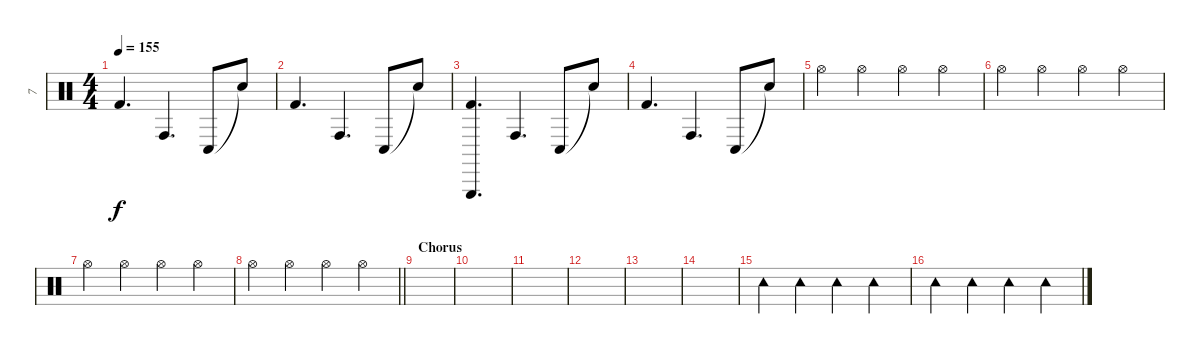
\track ("7" "7") {instrument percussion}
\staff {score}
\articulation defaults
\ts (4 4)
\tempo 155
\clef neutral
\ks c "Kick (hit) 2".4{d dy f} "Conga high (hit)".4{d} "Conga low (hit)".8 "Snare (hit)"{t}.8
|
"Kick (hit) 2".4{d} "Conga high (hit)".4{d} "Conga low (hit)".8 "Snare (hit)"{t}.8 |
("Kick (hit) 2" "Triangle (hit)").4{d} "Conga high (hit)".4{d} "Conga low (hit)".8 "Snare (hit)"{t}.8 |
"Kick (hit) 2".4{d} "Conga high (hit)".4{d} "Conga low (hit)".8 "Snare (hit)"{t}.8 |
"Hi-Hat (open)".4 "Hi-Hat (open)".4 "Hi-Hat (open)".4 "Hi-Hat (open)".4 |
"Hi-Hat (open)".4 "Hi-Hat (open)".4 "Hi-Hat (open)".4 "Hi-Hat (open)".4 |
"Hi-Hat (open)".4 "Hi-Hat (open)".4 "Hi-Hat (open)".4 "Hi-Hat (open)".4 |
\barLineRight lightlight "Hi-Hat (open)".4 "Hi-Hat (open)".4 "Hi-Hat (open)".4 "Hi-Hat (open)".4
|
\section ("" "Chorus")
|
|
|
|
|
|
"Tambourine (hit)".4 "Tambourine (hit)".4 "Tambourine (hit)".4 "Tambourine (hit)".4 |
"Tambourine (hit)".4 "Tambourine (hit)".4 "Tambourine (hit)".4 "Tambourine (hit)".4
